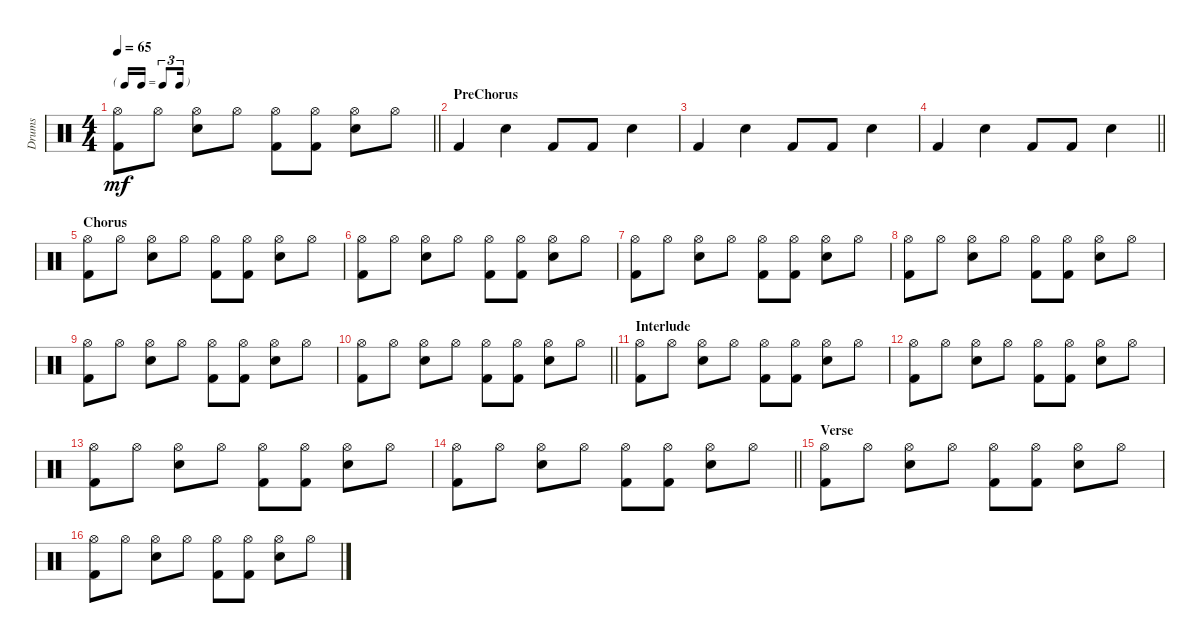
\track ("Drums" "Drums") {instrument percussion}
\staff {score}
\articulation defaults
\ts (4 4)
\tf triplet16th
\tempo 65
\clef neutral
\barLineRight lightlight
\ks c
("Hi-Hat (open)" "Kick (hit) 2").8{dy mf} "Hi-Hat (open)".8 ("Hi-Hat (open)" "Snare (hit) 2").8 "Hi-Hat (open)".8 ("Hi-Hat (open)" "Kick (hit) 2").8 ("Hi-Hat (open)" "Kick (hit) 2").8 ("Hi-Hat (open)" "Snare (hit) 2").8 "Hi-Hat (open)".8 |
\section ("" "PreChorus")
"Kick (hit) 2".4 "Snare (hit) 2".4 "Kick (hit) 2".8 "Kick (hit) 2".8 "Snare (hit) 2".4 |
"Kick (hit) 2".4 "Snare (hit) 2".4 "Kick (hit) 2".8 "Kick (hit) 2".8 "Snare (hit) 2".4 |
\barLineRight lightlight "Kick (hit) 2".4 "Snare (hit) 2".4 "Kick (hit) 2".8 "Kick (hit) 2".8 "Snare (hit) 2".4
|
\section ("" "Chorus")
("Hi-Hat (open)" "Kick (hit) 2").8 "Hi-Hat (open)".8 ("Hi-Hat (open)" "Snare (hit) 2").8 "Hi-Hat (open)".8 ("Hi-Hat (open)" "Kick (hit) 2").8 ("Hi-Hat (open)" "Kick (hit) 2").8 ("Hi-Hat (open)" "Snare (hit) 2").8 "Hi-Hat (open)".8 |
("Hi-Hat (open)" "Kick (hit) 2").8 "Hi-Hat (open)".8 ("Hi-Hat (open)" "Snare (hit) 2").8 "Hi-Hat (open)".8 ("Hi-Hat (open)" "Kick (hit) 2").8 ("Hi-Hat (open)" "Kick (hit) 2").8 ("Hi-Hat (open)" "Snare (hit) 2").8 "Hi-Hat (open)".8 |
("Hi-Hat (open)" "Kick (hit) 2").8 "Hi-Hat (open)".8 ("Hi-Hat (open)" "Snare (hit) 2").8 "Hi-Hat (open)".8 ("Hi-Hat (open)" "Kick (hit) 2").8 ("Hi-Hat (open)" "Kick (hit) 2").8 ("Hi-Hat (open)" "Snare (hit) 2").8 "Hi-Hat (open)".8 |
("Hi-Hat (open)" "Kick (hit) 2").8 "Hi-Hat (open)".8 ("Hi-Hat (open)" "Snare (hit) 2").8 "Hi-Hat (open)".8 ("Hi-Hat (open)" "Kick (hit) 2").8 ("Hi-Hat (open)" "Kick (hit) 2").8 ("Hi-Hat (open)" "Snare (hit) 2").8 "Hi-Hat (open)".8 |
("Hi-Hat (open)" "Kick (hit) 2").8 "Hi-Hat (open)".8 ("Hi-Hat (open)" "Snare (hit) 2").8 "Hi-Hat (open)".8 ("Hi-Hat (open)" "Kick (hit) 2").8 ("Hi-Hat (open)" "Kick (hit) 2").8 ("Hi-Hat (open)" "Snare (hit) 2").8 "Hi-Hat (open)".8 |
\barLineRight lightlight
("Hi-Hat (open)" "Kick (hit) 2").8 "Hi-Hat (open)".8 ("Hi-Hat (open)" "Snare (hit) 2").8 "Hi-Hat (open)".8 ("Hi-Hat (open)" "Kick (hit) 2").8 ("Hi-Hat (open)" "Kick (hit) 2").8 ("Hi-Hat (open)" "Snare (hit) 2").8 "Hi-Hat (open)".8 |
\section ("" "Interlude")
("Hi-Hat (open)" "Kick (hit) 2").8 "Hi-Hat (open)".8 ("Hi-Hat (open)" "Snare (hit) 2").8 "Hi-Hat (open)".8 ("Hi-Hat (open)" "Kick (hit) 2").8 ("Hi-Hat (open)" "Kick (hit) 2").8 ("Hi-Hat (open)" "Snare (hit) 2").8 "Hi-Hat (open)".8 |
("Hi-Hat (open)" "Kick (hit) 2").8 "Hi-Hat (open)".8 ("Hi-Hat (open)" "Snare (hit) 2").8 "Hi-Hat (open)".8 ("Hi-Hat (open)" "Kick (hit) 2").8 ("Hi-Hat (open)" "Kick (hit) 2").8 ("Hi-Hat (open)" "Snare (hit) 2").8 "Hi-Hat (open)".8 |
("Hi-Hat (open)" "Kick (hit) 2").8 "Hi-Hat (open)".8 ("Hi-Hat (open)" "Snare (hit) 2").8 "Hi-Hat (open)".8 ("Hi-Hat (open)" "Kick (hit) 2").8 ("Hi-Hat (open)" "Kick (hit) 2").8 ("Hi-Hat (open)" "Snare (hit) 2").8 "Hi-Hat (open)".8 |
\barLineRight lightlight
("Hi-Hat (open)" "Kick (hit) 2").8 "Hi-Hat (open)".8 ("Hi-Hat (open)" "Snare (hit) 2").8 "Hi-Hat (open)".8 ("Hi-Hat (open)" "Kick (hit) 2").8 ("Hi-Hat (open)" "Kick (hit) 2").8 ("Hi-Hat (open)" "Snare (hit) 2").8 "Hi-Hat (open)".8 |
\section ("" "Verse")
("Hi-Hat (open)" "Kick (hit) 2").8 "Hi-Hat (open)".8 ("Hi-Hat (open)" "Snare (hit) 2").8 "Hi-Hat (open)".8 ("Hi-Hat (open)" "Kick (hit) 2").8 ("Hi-Hat (open)" "Kick (hit) 2").8 ("Hi-Hat (open)" "Snare (hit) 2").8 "Hi-Hat (open)".8 |
("Hi-Hat (open)" "Kick (hit) 2").8 "Hi-Hat (open)".8 ("Hi-Hat (open)" "Snare (hit) 2").8 "Hi-Hat (open)".8 ("Hi-Hat (open)" "Kick (hit) 2").8 ("Hi-Hat (open)" "Kick (hit) 2").8 ("Hi-Hat (open)" "Snare (hit) 2").8 "Hi-Hat (open)".8
